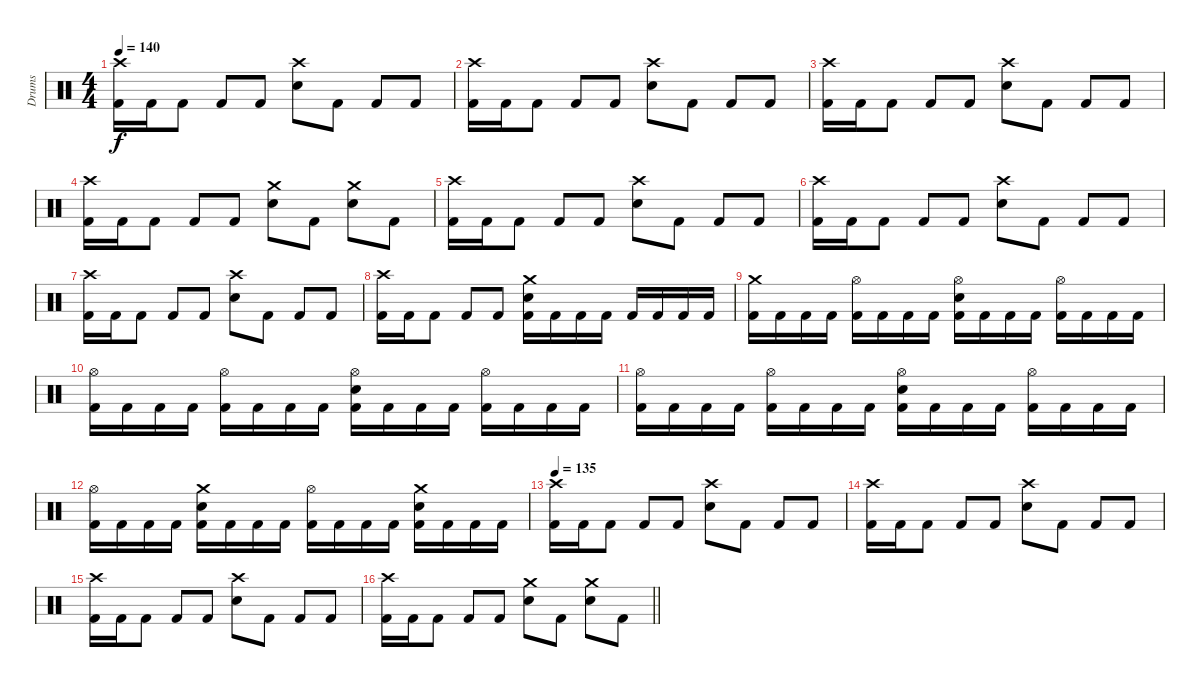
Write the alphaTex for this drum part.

\track ("Drums" "Drums") {instrument percussion}
\staff {score}
\articulation defaults
\ts (4 4)
\tempo 140
\clef neutral
\ks c
("Crash high (hit)" "Kick (hit) 2").16{dy f} "Kick (hit) 2".16 "Kick (hit) 2".8 "Kick (hit) 2".8 "Kick (hit) 2".8 ("Crash high (hit)" "Snare (hit) 2").8 "Kick (hit) 2".8 "Kick (hit) 2".8 "Kick (hit) 2".8 |
("Crash high (hit)" "Kick (hit) 2").16 "Kick (hit) 2".16 "Kick (hit) 2".8 "Kick (hit) 2".8 "Kick (hit) 2".8 ("Crash high (hit)" "Snare (hit) 2").8 "Kick (hit) 2".8 "Kick (hit) 2".8 "Kick (hit) 2".8 |
("Crash high (hit)" "Kick (hit) 2").16 "Kick (hit) 2".16 "Kick (hit) 2".8 "Kick (hit) 2".8 "Kick (hit) 2".8 ("Crash high (hit)" "Snare (hit) 2").8 "Kick (hit) 2".8 "Kick (hit) 2".8 "Kick (hit) 2".8 |
("Crash high (hit)" "Kick (hit) 2").16 "Kick (hit) 2".16 "Kick (hit) 2".8 "Kick (hit) 2".8 "Kick (hit) 2".8 ("Crash medium (hit)" "Snare (hit) 2").8 "Kick (hit) 2".8 ("Crash medium (hit)" "Snare (hit) 2").8 "Kick (hit) 2".8 |
("Crash high (hit)" "Kick (hit) 2").16 "Kick (hit) 2".16 "Kick (hit) 2".8 "Kick (hit) 2".8 "Kick (hit) 2".8 ("Crash high (hit)" "Snare (hit) 2").8 "Kick (hit) 2".8 "Kick (hit) 2".8 "Kick (hit) 2".8 |
("Crash high (hit)" "Kick (hit) 2").16 "Kick (hit) 2".16 "Kick (hit) 2".8 "Kick (hit) 2".8 "Kick (hit) 2".8 ("Crash high (hit)" "Snare (hit) 2").8 "Kick (hit) 2".8 "Kick (hit) 2".8 "Kick (hit) 2".8 |
("Crash high (hit)" "Kick (hit) 2").16 "Kick (hit) 2".16 "Kick (hit) 2".8 "Kick (hit) 2".8 "Kick (hit) 2".8 ("Crash high (hit)" "Snare (hit) 2").8 "Kick (hit) 2".8 "Kick (hit) 2".8 "Kick (hit) 2".8 |
("Crash high (hit)" "Kick (hit) 2").16 "Kick (hit) 2".16 "Kick (hit) 2".8 "Kick (hit) 2".8 "Kick (hit) 2".8 ("Crash medium (hit)" "Snare (hit) 2" "Kick (hit) 2").16 "Kick (hit) 2".16 "Kick (hit) 2".16 "Kick (hit) 2".16 "Kick (hit) 2".16 "Kick (hit) 2".16 "Kick (hit) 2".16 "Kick (hit) 2".16 |
("Crash medium (hit)" "Kick (hit) 2").16 "Kick (hit) 2".16 "Kick (hit) 2".16 "Kick (hit) 2".16 ("Hi-Hat (open)" "Kick (hit) 2").16 "Kick (hit) 2".16 "Kick (hit) 2".16 "Kick (hit) 2".16 ("Hi-Hat (open)" "Snare (hit) 2" "Kick (hit) 2").16 "Kick (hit) 2".16 "Kick (hit) 2".16 "Kick (hit) 2".16 ("Hi-Hat (open)" "Kick (hit) 2").16 "Kick (hit) 2".16 "Kick (hit) 2".16 "Kick (hit) 2".16 |
("Hi-Hat (open)" "Kick (hit) 2").16 "Kick (hit) 2".16 "Kick (hit) 2".16 "Kick (hit) 2".16 ("Hi-Hat (open)" "Kick (hit) 2").16 "Kick (hit) 2".16 "Kick (hit) 2".16 "Kick (hit) 2".16 ("Hi-Hat (open)" "Snare (hit) 2" "Kick (hit) 2").16 "Kick (hit) 2".16 "Kick (hit) 2".16 "Kick (hit) 2".16 ("Hi-Hat (open)" "Kick (hit) 2").16 "Kick (hit) 2".16 "Kick (hit) 2".16 "Kick (hit) 2".16 |
("Hi-Hat (open)" "Kick (hit) 2").16 "Kick (hit) 2".16 "Kick (hit) 2".16 "Kick (hit) 2".16 ("Hi-Hat (open)" "Kick (hit) 2").16 "Kick (hit) 2".16 "Kick (hit) 2".16 "Kick (hit) 2".16 ("Hi-Hat (open)" "Snare (hit) 2" "Kick (hit) 2").16 "Kick (hit) 2".16 "Kick (hit) 2".16 "Kick (hit) 2".16 ("Hi-Hat (open)" "Kick (hit) 2").16 "Kick (hit) 2".16 "Kick (hit) 2".16 "Kick (hit) 2".16 |
("Hi-Hat (open)" "Kick (hit) 2").16 "Kick (hit) 2".16 "Kick (hit) 2".16 "Kick (hit) 2".16 ("Crash medium (hit)" "Snare (hit) 2" "Kick (hit) 2").16 "Kick (hit) 2".16 "Kick (hit) 2".16 "Kick (hit) 2".16 ("Hi-Hat (open)" "Kick (hit) 2").16 "Kick (hit) 2".16 "Kick (hit) 2".16 "Kick (hit) 2".16 ("Crash medium (hit)" "Snare (hit) 2" "Kick (hit) 2").16 "Kick (hit) 2".16 "Kick (hit) 2".16 "Kick (hit) 2".16 |
\tempo 135
("Crash high (hit)" "Kick (hit) 2").16 "Kick (hit) 2".16 "Kick (hit) 2".8 "Kick (hit) 2".8 "Kick (hit) 2".8 ("Crash high (hit)" "Snare (hit) 2").8 "Kick (hit) 2".8 "Kick (hit) 2".8 "Kick (hit) 2".8 |
("Crash high (hit)" "Kick (hit) 2").16 "Kick (hit) 2".16 "Kick (hit) 2".8 "Kick (hit) 2".8 "Kick (hit) 2".8 ("Crash high (hit)" "Snare (hit) 2").8 "Kick (hit) 2".8 "Kick (hit) 2".8 "Kick (hit) 2".8 |
("Crash high (hit)" "Kick (hit) 2").16 "Kick (hit) 2".16 "Kick (hit) 2".8 "Kick (hit) 2".8 "Kick (hit) 2".8 ("Crash high (hit)" "Snare (hit) 2").8 "Kick (hit) 2".8 "Kick (hit) 2".8 "Kick (hit) 2".8 |
\barLineRight lightlight
("Crash high (hit)" "Kick (hit) 2").16 "Kick (hit) 2".16 "Kick (hit) 2".8 "Kick (hit) 2".8 "Kick (hit) 2".8 ("Crash medium (hit)" "Snare (hit) 2").8 "Kick (hit) 2".8 ("Crash medium (hit)" "Snare (hit) 2").8 "Kick (hit) 2".8
